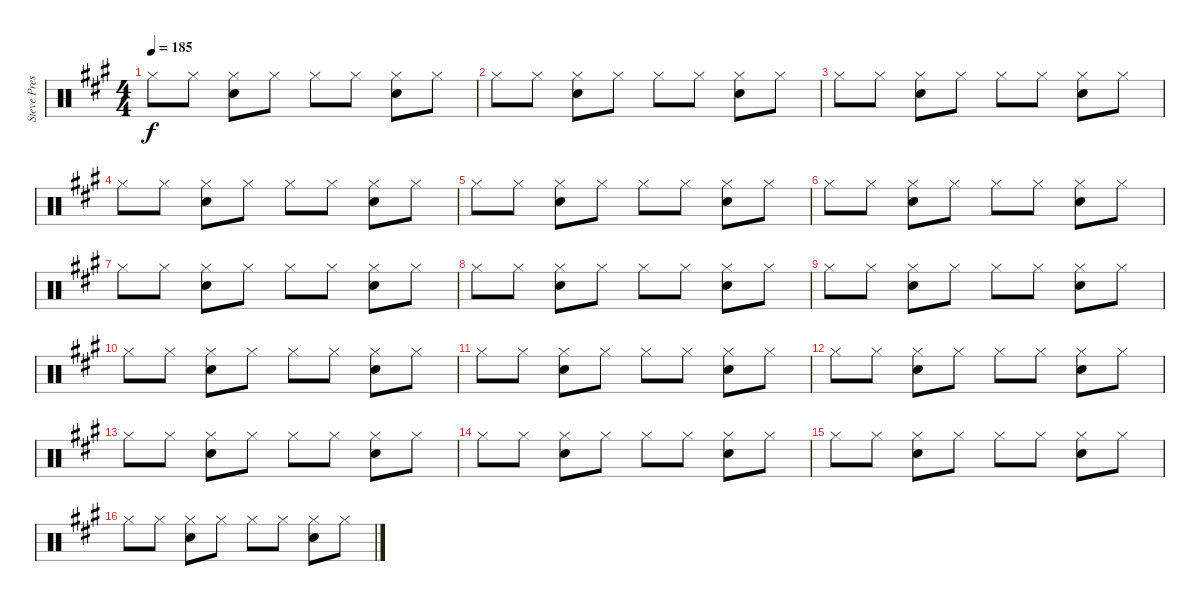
\track ("Steve Preswhich" "Steve Pres") {instrument percussion}
\staff {score}
\articulation defaults
\ts (4 4)
\tempo 185
\clef neutral
\ks a "Hi-Hat (closed)".8{dy f} "Hi-Hat (closed)".8
("Hi-Hat (closed)" "Electric Snare (hit)").8 "Hi-Hat (closed)".8 "Hi-Hat (closed)".8 "Hi-Hat (closed)".8 ("Hi-Hat (closed)" "Electric Snare (hit)").8 "Hi-Hat (closed)".8 |
"Hi-Hat (closed)".8 "Hi-Hat (closed)".8 ("Hi-Hat (closed)" "Electric Snare (hit)").8 "Hi-Hat (closed)".8 "Hi-Hat (closed)".8 "Hi-Hat (closed)".8 ("Hi-Hat (closed)" "Electric Snare (hit)").8 "Hi-Hat (closed)".8 |
"Hi-Hat (closed)".8 "Hi-Hat (closed)".8 ("Hi-Hat (closed)" "Electric Snare (hit)").8 "Hi-Hat (closed)".8 "Hi-Hat (closed)".8 "Hi-Hat (closed)".8 ("Hi-Hat (closed)" "Electric Snare (hit)").8 "Hi-Hat (closed)".8 |
"Hi-Hat (closed)".8 "Hi-Hat (closed)".8 ("Hi-Hat (closed)" "Electric Snare (hit)").8 "Hi-Hat (closed)".8 "Hi-Hat (closed)".8 "Hi-Hat (closed)".8 ("Hi-Hat (closed)" "Electric Snare (hit)").8 "Hi-Hat (closed)".8 |
"Hi-Hat (closed)".8 "Hi-Hat (closed)".8 ("Hi-Hat (closed)" "Electric Snare (hit)").8 "Hi-Hat (closed)".8 "Hi-Hat (closed)".8 "Hi-Hat (closed)".8 ("Hi-Hat (closed)" "Electric Snare (hit)").8 "Hi-Hat (closed)".8 |
"Hi-Hat (closed)".8 "Hi-Hat (closed)".8 ("Hi-Hat (closed)" "Electric Snare (hit)").8 "Hi-Hat (closed)".8 "Hi-Hat (closed)".8 "Hi-Hat (closed)".8 ("Hi-Hat (closed)" "Electric Snare (hit)").8 "Hi-Hat (closed)".8 |
"Hi-Hat (closed)".8 "Hi-Hat (closed)".8 ("Hi-Hat (closed)" "Electric Snare (hit)").8 "Hi-Hat (closed)".8 "Hi-Hat (closed)".8 "Hi-Hat (closed)".8 ("Hi-Hat (closed)" "Electric Snare (hit)").8 "Hi-Hat (closed)".8 |
"Hi-Hat (closed)".8 "Hi-Hat (closed)".8 ("Hi-Hat (closed)" "Electric Snare (hit)").8 "Hi-Hat (closed)".8 "Hi-Hat (closed)".8 "Hi-Hat (closed)".8 ("Hi-Hat (closed)" "Electric Snare (hit)").8 "Hi-Hat (closed)".8 |
"Hi-Hat (closed)".8 "Hi-Hat (closed)".8 ("Hi-Hat (closed)" "Electric Snare (hit)").8 "Hi-Hat (closed)".8 "Hi-Hat (closed)".8 "Hi-Hat (closed)".8 ("Hi-Hat (closed)" "Electric Snare (hit)").8 "Hi-Hat (closed)".8 |
"Hi-Hat (closed)".8 "Hi-Hat (closed)".8 ("Hi-Hat (closed)" "Electric Snare (hit)").8 "Hi-Hat (closed)".8 "Hi-Hat (closed)".8 "Hi-Hat (closed)".8 ("Hi-Hat (closed)" "Electric Snare (hit)").8 "Hi-Hat (closed)".8 |
"Hi-Hat (closed)".8 "Hi-Hat (closed)".8 ("Hi-Hat (closed)" "Electric Snare (hit)").8 "Hi-Hat (closed)".8 "Hi-Hat (closed)".8 "Hi-Hat (closed)".8 ("Hi-Hat (closed)" "Electric Snare (hit)").8 "Hi-Hat (closed)".8 |
"Hi-Hat (closed)".8 "Hi-Hat (closed)".8 ("Hi-Hat (closed)" "Electric Snare (hit)").8 "Hi-Hat (closed)".8 "Hi-Hat (closed)".8 "Hi-Hat (closed)".8 ("Hi-Hat (closed)" "Electric Snare (hit)").8 "Hi-Hat (closed)".8 |
"Hi-Hat (closed)".8 "Hi-Hat (closed)".8 ("Hi-Hat (closed)" "Electric Snare (hit)").8 "Hi-Hat (closed)".8 "Hi-Hat (closed)".8 "Hi-Hat (closed)".8 ("Hi-Hat (closed)" "Electric Snare (hit)").8 "Hi-Hat (closed)".8 |
"Hi-Hat (closed)".8 "Hi-Hat (closed)".8 ("Hi-Hat (closed)" "Electric Snare (hit)").8 "Hi-Hat (closed)".8 "Hi-Hat (closed)".8 "Hi-Hat (closed)".8 ("Hi-Hat (closed)" "Electric Snare (hit)").8 "Hi-Hat (closed)".8 |
"Hi-Hat (closed)".8 "Hi-Hat (closed)".8 ("Hi-Hat (closed)" "Electric Snare (hit)").8 "Hi-Hat (closed)".8 "Hi-Hat (closed)".8 "Hi-Hat (closed)".8 ("Hi-Hat (closed)" "Electric Snare (hit)").8 "Hi-Hat (closed)".8 |
"Hi-Hat (closed)".8 "Hi-Hat (closed)".8 ("Hi-Hat (closed)" "Electric Snare (hit)").8 "Hi-Hat (closed)".8 "Hi-Hat (closed)".8 "Hi-Hat (closed)".8 ("Hi-Hat (closed)" "Electric Snare (hit)").8 "Hi-Hat (closed)".8
